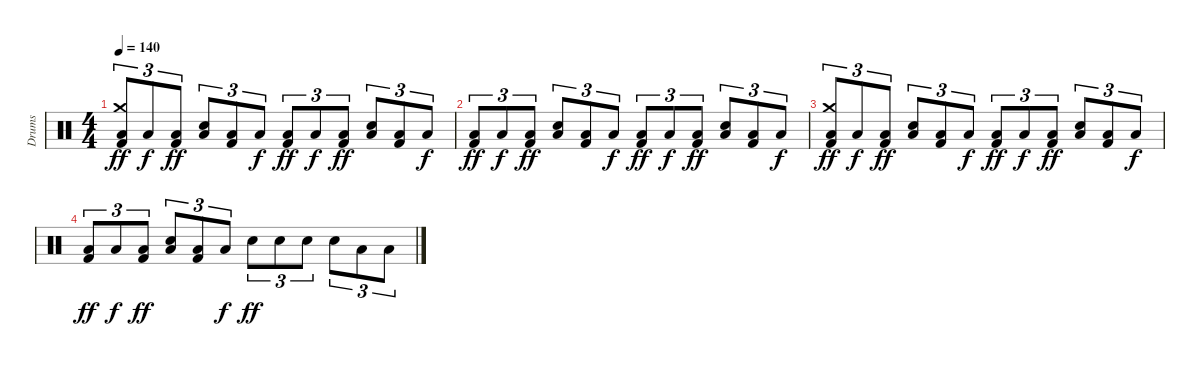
\track ("Drums" "Drums") {instrument percussion}
\staff {score}
\articulation defaults
\ts (4 4)
\tempo 140
\clef neutral
\ks c
("Kick (hit) 2" "Crash medium (hit)" "Low Floor Tom (hit)").8{tu (3 2) dy ff} "Low Floor Tom (hit)".8{tu (3 2) dy f} ("Kick (hit) 2" "Low Floor Tom (hit)").8{tu (3 2) dy ff} ("Snare (hit) 2" "Low Floor Tom (hit)").8{tu (3 2)} ("Kick (hit) 2" "Low Floor Tom (hit)").8{tu (3 2)} "Low Floor Tom (hit)".8{tu (3 2) dy f} ("Kick (hit) 2" "Low Floor Tom (hit)").8{tu (3 2) dy ff} "Low Floor Tom (hit)".8{tu (3 2) dy f} ("Kick (hit) 2" "Low Floor Tom (hit)").8{tu (3 2) dy ff} ("Snare (hit) 2" "Low Floor Tom (hit)").8{tu (3 2) volume 3} ("Kick (hit) 2" "Low Floor Tom (hit)").8{tu (3 2)} "Low Floor Tom (hit)".8{tu (3 2) dy f} |
("Kick (hit) 2" "Low Floor Tom (hit)").8{tu (3 2) dy ff} "Low Floor Tom (hit)".8{tu (3 2) dy f} ("Kick (hit) 2" "Low Floor Tom (hit)").8{tu (3 2) dy ff} ("Snare (hit) 2" "Low Floor Tom (hit)").8{tu (3 2)} ("Kick (hit) 2" "Low Floor Tom (hit)").8{tu (3 2)} "Low Floor Tom (hit)".8{tu (3 2) dy f} ("Kick (hit) 2" "Low Floor Tom (hit)").8{tu (3 2) dy ff} "Low Floor Tom (hit)".8{tu (3 2) dy f} ("Kick (hit) 2" "Low Floor Tom (hit)").8{tu (3 2) dy ff volume 2} ("Snare (hit) 2" "Low Floor Tom (hit)").8{tu (3 2)} ("Kick (hit) 2" "Low Floor Tom (hit)").8{tu (3 2)} "Low Floor Tom (hit)".8{tu (3 2) dy f} |
("Kick (hit) 2" "Crash medium (hit)" "Low Floor Tom (hit)").8{tu (3 2) dy ff} "Low Floor Tom (hit)".8{tu (3 2) dy f} ("Kick (hit) 2" "Low Floor Tom (hit)").8{tu (3 2) dy ff} ("Snare (hit) 2" "Low Floor Tom (hit)").8{tu (3 2)} ("Kick (hit) 2" "Low Floor Tom (hit)").8{tu (3 2)} "Low Floor Tom (hit)".8{tu (3 2) dy f} ("Kick (hit) 2" "Low Floor Tom (hit)").8{tu (3 2) dy ff} "Low Floor Tom (hit)".8{tu (3 2) dy f} ("Kick (hit) 2" "Low Floor Tom (hit)").8{tu (3 2) dy ff volume 1} ("Snare (hit) 2" "Low Floor Tom (hit)").8{tu (3 2)} ("Kick (hit) 2" "Low Floor Tom (hit)").8{tu (3 2)} "Low Floor Tom (hit)".8{tu (3 2) dy f} |
("Kick (hit) 2" "Low Floor Tom (hit)").8{tu (3 2) dy ff} "Low Floor Tom (hit)".8{tu (3 2) dy f} ("Kick (hit) 2" "Low Floor Tom (hit)").8{tu (3 2) dy ff} ("Snare (hit) 2" "Low Floor Tom (hit)").8{tu (3 2)} ("Kick (hit) 2" "Low Floor Tom (hit)").8{tu (3 2)} "Low Floor Tom (hit)".8{tu (3 2) dy f} "Snare (hit) 2".8{tu (3 2) dy ff volume 0} "Snare (hit) 2".8{tu (3 2)} "Snare (hit) 2".8{tu (3 2)} "Snare (hit) 2".8{tu (3 2)} "Low Tom (hit)".8{tu (3 2)} "Low Floor Tom (hit)".8{tu (3 2)}
